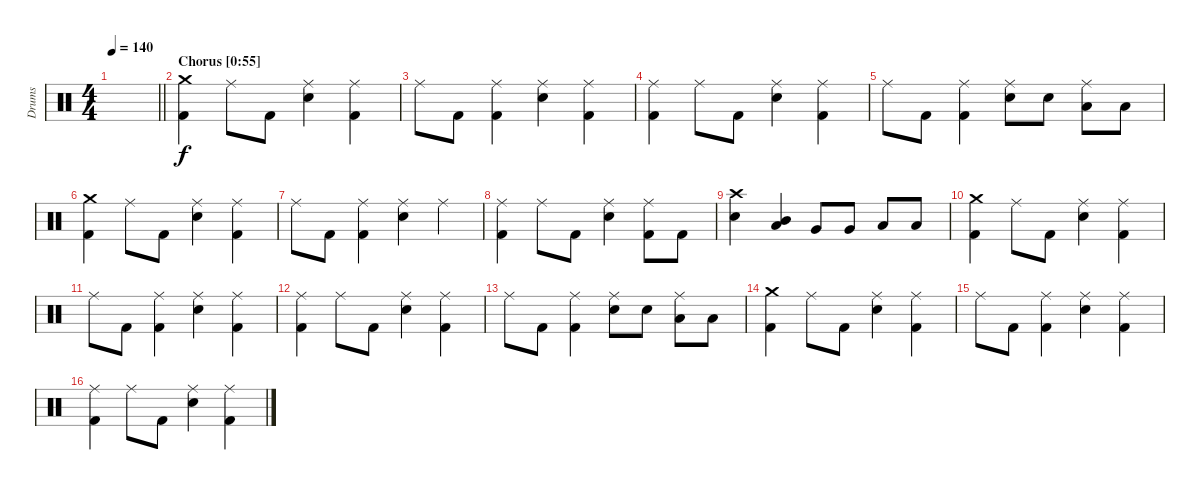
\track ("Drums" "Drums") {instrument percussion}
\staff {score}
\articulation defaults
\ts (4 4)
\tempo 140
\clef neutral
\barLineRight lightlight
\ks aminor
|
\section ("" "Chorus [0:55]")
("Crash medium (hit)" "Kick (hit) 2").4 "Ride (middle)".8 "Kick (hit) 2".8 ("Ride (middle)" "Snare (hit) 2").4 ("Ride (middle)" "Kick (hit) 2").4 |
"Ride (middle)".8 "Kick (hit) 2".8 ("Ride (middle)" "Kick (hit) 2").4 ("Ride (middle)" "Snare (hit) 2").4 ("Ride (middle)" "Kick (hit) 2").4 |
("Ride (middle)" "Kick (hit) 2").4 "Ride (middle)".8 "Kick (hit) 2".8 ("Ride (middle)" "Snare (hit) 2").4 ("Ride (middle)" "Kick (hit) 2").4 |
"Ride (middle)".8 "Kick (hit) 2".8 ("Ride (middle)" "Kick (hit) 2").4 ("Ride (middle)" "Snare (hit) 2").8 "Snare (hit) 2".8 ("Ride (middle)" "Low Floor Tom (hit)").8 "Low Floor Tom (hit)".8 |
("Crash medium (hit)" "Kick (hit) 2").4 "Ride (middle)".8 "Kick (hit) 2".8 ("Ride (middle)" "Snare (hit) 2").4 ("Ride (middle)" "Kick (hit) 2").4 |
"Ride (middle)".8 "Kick (hit) 2".8 ("Ride (middle)" "Kick (hit) 2").4 ("Ride (middle)" "Snare (hit) 2").4 "Ride (middle)".4 |
("Ride (middle)" "Kick (hit) 2").4 "Ride (middle)".8 "Kick (hit) 2".8 ("Ride (middle)" "Snare (hit) 2").4 ("Ride (middle)" "Kick (hit) 2").8 "Kick (hit) 2".8 |
("Crash high (hit)" "Snare (hit) 2").4 ("Mid Tom (hit)" "Low Tom (hit)").4 "Very Low Tom (hit)".8 "Very Low Tom (hit)".8 "Low Floor Tom (hit)".8 "Low Floor Tom (hit)".8 |
("Crash medium (hit)" "Kick (hit) 2").4 "Ride (middle)".8 "Kick (hit) 2".8 ("Ride (middle)" "Snare (hit) 2").4 ("Ride (middle)" "Kick (hit) 2").4 |
"Ride (middle)".8 "Kick (hit) 2".8 ("Ride (middle)" "Kick (hit) 2").4 ("Ride (middle)" "Snare (hit) 2").4 ("Ride (middle)" "Kick (hit) 2").4 |
("Ride (middle)" "Kick (hit) 2").4 "Ride (middle)".8 "Kick (hit) 2".8 ("Ride (middle)" "Snare (hit) 2").4 ("Ride (middle)" "Kick (hit) 2").4 |
"Ride (middle)".8 "Kick (hit) 2".8 ("Ride (middle)" "Kick (hit) 2").4 ("Ride (middle)" "Snare (hit) 2").8 "Snare (hit) 2".8 ("Ride (middle)" "Low Floor Tom (hit)").8 "Low Floor Tom (hit)".8 |
("Crash medium (hit)" "Kick (hit) 2").4 "Ride (middle)".8 "Kick (hit) 2".8 ("Ride (middle)" "Snare (hit) 2").4 ("Ride (middle)" "Kick (hit) 2").4 |
"Ride (middle)".8 "Kick (hit) 2".8 ("Ride (middle)" "Kick (hit) 2").4 ("Ride (middle)" "Snare (hit) 2").4 ("Ride (middle)" "Kick (hit) 2").4 |
("Ride (middle)" "Kick (hit) 2").4 "Ride (middle)".8 "Kick (hit) 2".8 ("Ride (middle)" "Snare (hit) 2").4 ("Ride (middle)" "Kick (hit) 2").4
